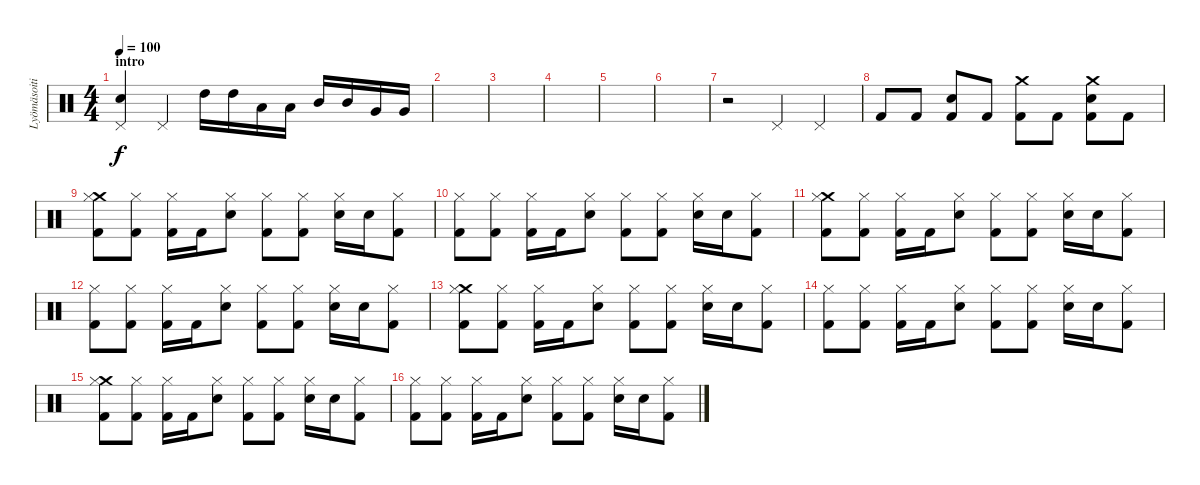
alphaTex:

\track ("Lyömäsoitin" "Lyömäsoiti") {instrument percussion}
\staff {score}
\articulation defaults
\ts (4 4)
\section ("" "intro")
\tempo 100
\clef neutral
\ks c
("Snare (hit)" "Pedal Hi-Hat (hit)").4{dy f} "Pedal Hi-Hat (hit)".4 "High Tom (hit)".16 "High Tom (hit)".16 "Low Tom (hit)".16 "Low Tom (hit)".16 "Mid Tom (hit)".16 "Mid Tom (hit)".16 "Very Low Tom (hit)".16 "Very Low Tom (hit)".16 |
|
|
|
|
|
r.2 "Pedal Hi-Hat (hit)".4 "Pedal Hi-Hat (hit)".4 |
"Kick (hit) 2".8 "Kick (hit) 2".8 ("Snare (hit) 2" "Kick (hit) 2").8 "Kick (hit) 2".8 ("Crash medium (hit)" "Kick (hit) 2").8 "Kick (hit) 2".8 ("Crash medium (hit)" "Kick (hit) 2" "Snare (hit) 2").8 "Kick (hit) 2".8 |
("Crash medium (hit)" "Hi-Hat (closed)" "Kick (hit) 2").8 ("Hi-Hat (closed)" "Kick (hit) 2").8 ("Hi-Hat (closed)" "Kick (hit) 2").16 "Kick (hit) 2".16 ("Hi-Hat (closed)" "Snare (hit) 2").8 ("Hi-Hat (closed)" "Kick (hit) 2").8 ("Hi-Hat (closed)" "Kick (hit) 2").8 ("Hi-Hat (closed)" "Snare (hit) 2").16 "Snare (hit) 2".16 ("Hi-Hat (closed)" "Kick (hit) 2").8 |
("Hi-Hat (closed)" "Kick (hit) 2").8 ("Hi-Hat (closed)" "Kick (hit) 2").8 ("Hi-Hat (closed)" "Kick (hit) 2").16 "Kick (hit) 2".16 ("Hi-Hat (closed)" "Snare (hit) 2").8 ("Hi-Hat (closed)" "Kick (hit) 2").8 ("Hi-Hat (closed)" "Kick (hit) 2").8 ("Hi-Hat (closed)" "Snare (hit) 2").16 "Snare (hit) 2".16 ("Hi-Hat (closed)" "Kick (hit) 2").8 |
("Crash medium (hit)" "Hi-Hat (closed)" "Kick (hit) 2").8 ("Hi-Hat (closed)" "Kick (hit) 2").8 ("Hi-Hat (closed)" "Kick (hit) 2").16 "Kick (hit) 2".16 ("Hi-Hat (closed)" "Snare (hit) 2").8 ("Hi-Hat (closed)" "Kick (hit) 2").8 ("Hi-Hat (closed)" "Kick (hit) 2").8 ("Hi-Hat (closed)" "Snare (hit) 2").16 "Snare (hit) 2".16 ("Hi-Hat (closed)" "Kick (hit) 2").8 |
("Hi-Hat (closed)" "Kick (hit) 2").8 ("Hi-Hat (closed)" "Kick (hit) 2").8 ("Hi-Hat (closed)" "Kick (hit) 2").16 "Kick (hit) 2".16 ("Hi-Hat (closed)" "Snare (hit) 2").8 ("Hi-Hat (closed)" "Kick (hit) 2").8 ("Hi-Hat (closed)" "Kick (hit) 2").8 ("Hi-Hat (closed)" "Snare (hit) 2").16 "Snare (hit) 2".16 ("Hi-Hat (closed)" "Kick (hit) 2").8 |
("Crash medium (hit)" "Hi-Hat (closed)" "Kick (hit) 2").8 ("Hi-Hat (closed)" "Kick (hit) 2").8 ("Hi-Hat (closed)" "Kick (hit) 2").16 "Kick (hit) 2".16 ("Hi-Hat (closed)" "Snare (hit) 2").8 ("Hi-Hat (closed)" "Kick (hit) 2").8 ("Hi-Hat (closed)" "Kick (hit) 2").8 ("Hi-Hat (closed)" "Snare (hit) 2").16 "Snare (hit) 2".16 ("Hi-Hat (closed)" "Kick (hit) 2").8 |
("Hi-Hat (closed)" "Kick (hit) 2").8 ("Hi-Hat (closed)" "Kick (hit) 2").8 ("Hi-Hat (closed)" "Kick (hit) 2").16 "Kick (hit) 2".16 ("Hi-Hat (closed)" "Snare (hit) 2").8 ("Hi-Hat (closed)" "Kick (hit) 2").8 ("Hi-Hat (closed)" "Kick (hit) 2").8 ("Hi-Hat (closed)" "Snare (hit) 2").16 "Snare (hit) 2".16 ("Hi-Hat (closed)" "Kick (hit) 2").8 |
("Crash medium (hit)" "Hi-Hat (closed)" "Kick (hit) 2").8 ("Hi-Hat (closed)" "Kick (hit) 2").8 ("Hi-Hat (closed)" "Kick (hit) 2").16 "Kick (hit) 2".16 ("Hi-Hat (closed)" "Snare (hit) 2").8 ("Hi-Hat (closed)" "Kick (hit) 2").8 ("Hi-Hat (closed)" "Kick (hit) 2").8 ("Hi-Hat (closed)" "Snare (hit) 2").16 "Snare (hit) 2".16 ("Hi-Hat (closed)" "Kick (hit) 2").8 |
("Hi-Hat (closed)" "Kick (hit) 2").8 ("Hi-Hat (closed)" "Kick (hit) 2").8 ("Hi-Hat (closed)" "Kick (hit) 2").16 "Kick (hit) 2".16 ("Hi-Hat (closed)" "Snare (hit) 2").8 ("Hi-Hat (closed)" "Kick (hit) 2").8 ("Hi-Hat (closed)" "Kick (hit) 2").8 ("Hi-Hat (closed)" "Snare (hit) 2").16 "Snare (hit) 2".16 ("Hi-Hat (closed)" "Kick (hit) 2").8
